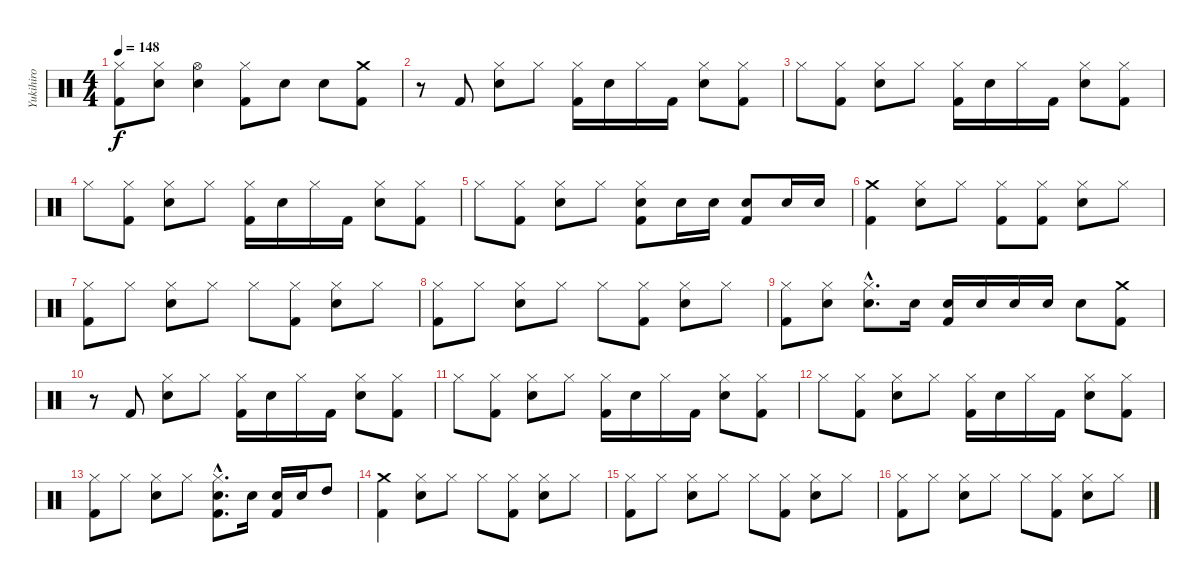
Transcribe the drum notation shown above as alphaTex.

\track ("Yukihiro" "Yukihiro") {instrument percussion}
\staff {score}
\articulation defaults
\ts (4 4)
\tempo 148
\clef neutral
\ks c
("Hi-Hat (closed)" "Kick (hit) 2").8{dy f} ("Hi-Hat (closed)" "Snare (hit) 2").8 ("Hi-Hat (open)" "Snare (hit) 2").4 ("Hi-Hat (closed)" "Kick (hit) 2").8 "Snare (hit) 2".8 "Snare (hit) 2".8 ("Crash medium (hit)" "Kick (hit) 2").8 |
r.8 "Kick (hit) 2".8 ("Hi-Hat (closed)" "Snare (hit) 2").8 "Hi-Hat (closed)".8 ("Hi-Hat (closed)" "Kick (hit) 2").16 "Snare (hit) 2".16 "Hi-Hat (closed)".16 "Kick (hit) 2".16 ("Hi-Hat (closed)" "Snare (hit) 2").8 ("Hi-Hat (closed)" "Kick (hit) 2").8 |
"Hi-Hat (closed)".8 ("Hi-Hat (closed)" "Kick (hit) 2").8 ("Hi-Hat (closed)" "Snare (hit) 2").8 "Hi-Hat (closed)".8 ("Hi-Hat (closed)" "Kick (hit) 2").16 "Snare (hit) 2".16 "Hi-Hat (closed)".16 "Kick (hit) 2".16 ("Hi-Hat (closed)" "Snare (hit) 2").8 ("Hi-Hat (closed)" "Kick (hit) 2").8 |
"Hi-Hat (closed)".8 ("Hi-Hat (closed)" "Kick (hit) 2").8 ("Hi-Hat (closed)" "Snare (hit) 2").8 "Hi-Hat (closed)".8 ("Hi-Hat (closed)" "Kick (hit) 2").16 "Snare (hit) 2".16 "Hi-Hat (closed)".16 "Kick (hit) 2".16 ("Hi-Hat (closed)" "Snare (hit) 2").8 ("Hi-Hat (closed)" "Kick (hit) 2").8 |
"Hi-Hat (closed)".8 ("Hi-Hat (closed)" "Kick (hit) 2").8 ("Hi-Hat (closed)" "Snare (hit) 2").8 "Hi-Hat (closed)".8 ("Hi-Hat (closed)" "Snare (hit) 2" "Kick (hit) 2").8 "Snare (hit) 2".16 "Snare (hit) 2".16 ("Snare (hit) 2" "Kick (hit) 2").8 "Snare (hit) 2".16 "Snare (hit) 2".16 |
("Crash medium (hit)" "Kick (hit) 2").4 ("Hi-Hat (closed)" "Snare (hit) 2").8 "Hi-Hat (closed)".8 ("Hi-Hat (closed)" "Kick (hit) 2").8 ("Hi-Hat (closed)" "Kick (hit) 2").8 ("Hi-Hat (closed)" "Snare (hit) 2").8 "Hi-Hat (closed)".8 |
("Hi-Hat (closed)" "Kick (hit) 2").8 "Hi-Hat (closed)".8 ("Hi-Hat (closed)" "Snare (hit) 2").8 "Hi-Hat (closed)".8 "Hi-Hat (closed)".8 ("Hi-Hat (closed)" "Kick (hit) 2").8 ("Hi-Hat (closed)" "Snare (hit) 2").8 "Hi-Hat (closed)".8 |
("Hi-Hat (closed)" "Kick (hit) 2").8 "Hi-Hat (closed)".8 ("Hi-Hat (closed)" "Snare (hit) 2").8 "Hi-Hat (closed)".8 "Hi-Hat (closed)".8 ("Hi-Hat (closed)" "Kick (hit) 2").8 ("Hi-Hat (closed)" "Snare (hit) 2").8 "Hi-Hat (closed)".8 |
("Hi-Hat (closed)" "Kick (hit) 2").8 ("Hi-Hat (closed)" "Snare (hit) 2").8 ("Hi-Hat (closed)"{hac} "Snare (hit) 2"{hac}).8{d} "Snare (hit) 2".16 ("Snare (hit) 2" "Kick (hit) 2").16 "Snare (hit) 2".16 "Snare (hit) 2".16 "Snare (hit) 2".16 "Snare (hit) 2".8 ("Crash medium (hit)" "Kick (hit) 2").8 |
r.8 "Kick (hit) 2".8 ("Hi-Hat (closed)" "Snare (hit) 2").8 "Hi-Hat (closed)".8 ("Hi-Hat (closed)" "Kick (hit) 2").16 "Snare (hit) 2".16 "Hi-Hat (closed)".16 "Kick (hit) 2".16 ("Hi-Hat (closed)" "Snare (hit) 2").8 ("Hi-Hat (closed)" "Kick (hit) 2").8 |
"Hi-Hat (closed)".8 ("Hi-Hat (closed)" "Kick (hit) 2").8 ("Hi-Hat (closed)" "Snare (hit) 2").8 "Hi-Hat (closed)".8 ("Hi-Hat (closed)" "Kick (hit) 2").16 "Snare (hit) 2".16 "Hi-Hat (closed)".16 "Kick (hit) 2".16 ("Hi-Hat (closed)" "Snare (hit) 2").8 ("Hi-Hat (closed)" "Kick (hit) 2").8 |
"Hi-Hat (closed)".8 ("Hi-Hat (closed)" "Kick (hit) 2").8 ("Hi-Hat (closed)" "Snare (hit) 2").8 "Hi-Hat (closed)".8 ("Hi-Hat (closed)" "Kick (hit) 2").16 "Snare (hit) 2".16 "Hi-Hat (closed)".16 "Kick (hit) 2".16 ("Hi-Hat (closed)" "Snare (hit) 2").8 ("Hi-Hat (closed)" "Kick (hit) 2").8 |
("Hi-Hat (closed)" "Kick (hit) 2").8 "Hi-Hat (closed)".8 ("Hi-Hat (closed)" "Snare (hit) 2").8 "Hi-Hat (closed)".8 ("Hi-Hat (closed)"{hac} "Snare (hit) 2"{hac} "Kick (hit) 2"{hac}).8{d} "Snare (hit) 2".16 ("Snare (hit) 2" "Kick (hit) 2").16 "Snare (hit) 2".16 "High Tom (hit)".8 |
("Crash medium (hit)" "Kick (hit) 2").4 ("Hi-Hat (closed)" "Snare (hit) 2").8 "Hi-Hat (closed)".8 "Hi-Hat (closed)".8 ("Hi-Hat (closed)" "Kick (hit) 2").8 ("Hi-Hat (closed)" "Snare (hit) 2").8 "Hi-Hat (closed)".8 |
("Hi-Hat (closed)" "Kick (hit) 2").8 "Hi-Hat (closed)".8 ("Hi-Hat (closed)" "Snare (hit) 2").8 "Hi-Hat (closed)".8 "Hi-Hat (closed)".8 ("Hi-Hat (closed)" "Kick (hit) 2").8 ("Hi-Hat (closed)" "Snare (hit) 2").8 "Hi-Hat (closed)".8 |
("Hi-Hat (closed)" "Kick (hit) 2").8 "Hi-Hat (closed)".8 ("Hi-Hat (closed)" "Snare (hit) 2").8 "Hi-Hat (closed)".8 "Hi-Hat (closed)".8 ("Hi-Hat (closed)" "Kick (hit) 2").8 ("Hi-Hat (closed)" "Snare (hit) 2").8 "Hi-Hat (closed)".8
